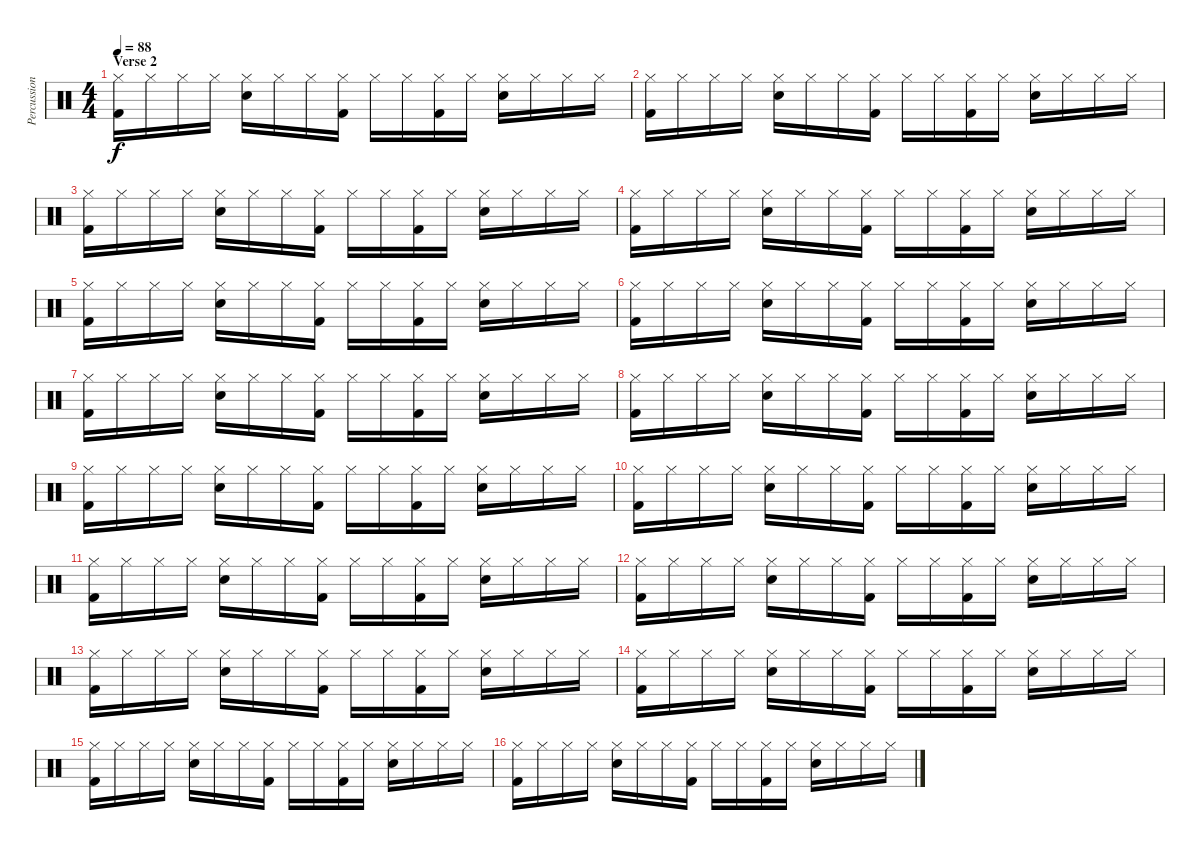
\track ("Percussion" "Percussion") {instrument percussion}
\staff {score}
\articulation defaults
\ts (4 4)
\section ("" "Verse 2")
\tempo 88
\clef neutral
\ks c
("Hi-Hat (closed)" "Kick (hit) 2").16{dy f} "Hi-Hat (closed)".16 "Hi-Hat (closed)".16 "Hi-Hat (closed)".16 ("Hi-Hat (closed)" "Electric Snare (hit)").16 "Hi-Hat (closed)".16 "Hi-Hat (closed)".16 ("Hi-Hat (closed)" "Kick (hit) 2").16 "Hi-Hat (closed)".16 "Hi-Hat (closed)".16 ("Hi-Hat (closed)" "Kick (hit) 2").16 "Hi-Hat (closed)".16 ("Hi-Hat (closed)" "Electric Snare (hit)").16 "Hi-Hat (closed)".16 "Hi-Hat (closed)".16 "Hi-Hat (closed)".16 |
("Hi-Hat (closed)" "Kick (hit) 2").16 "Hi-Hat (closed)".16 "Hi-Hat (closed)".16 "Hi-Hat (closed)".16 ("Hi-Hat (closed)" "Electric Snare (hit)").16 "Hi-Hat (closed)".16 "Hi-Hat (closed)".16 ("Hi-Hat (closed)" "Kick (hit) 2").16 "Hi-Hat (closed)".16 "Hi-Hat (closed)".16 ("Hi-Hat (closed)" "Kick (hit) 2").16 "Hi-Hat (closed)".16 ("Hi-Hat (closed)" "Electric Snare (hit)").16 "Hi-Hat (closed)".16 "Hi-Hat (closed)".16 "Hi-Hat (closed)".16 |
("Hi-Hat (closed)" "Kick (hit) 2").16 "Hi-Hat (closed)".16 "Hi-Hat (closed)".16 "Hi-Hat (closed)".16 ("Hi-Hat (closed)" "Electric Snare (hit)").16 "Hi-Hat (closed)".16 "Hi-Hat (closed)".16 ("Hi-Hat (closed)" "Kick (hit) 2").16 "Hi-Hat (closed)".16 "Hi-Hat (closed)".16 ("Hi-Hat (closed)" "Kick (hit) 2").16 "Hi-Hat (closed)".16 ("Hi-Hat (closed)" "Electric Snare (hit)").16 "Hi-Hat (closed)".16 "Hi-Hat (closed)".16 "Hi-Hat (closed)".16 |
("Hi-Hat (closed)" "Kick (hit) 2").16 "Hi-Hat (closed)".16 "Hi-Hat (closed)".16 "Hi-Hat (closed)".16 ("Hi-Hat (closed)" "Electric Snare (hit)").16 "Hi-Hat (closed)".16 "Hi-Hat (closed)".16 ("Hi-Hat (closed)" "Kick (hit) 2").16 "Hi-Hat (closed)".16 "Hi-Hat (closed)".16 ("Hi-Hat (closed)" "Kick (hit) 2").16 "Hi-Hat (closed)".16 ("Hi-Hat (closed)" "Electric Snare (hit)").16 "Hi-Hat (closed)".16 "Hi-Hat (closed)".16 "Hi-Hat (closed)".16 |
("Hi-Hat (closed)" "Kick (hit) 2").16 "Hi-Hat (closed)".16 "Hi-Hat (closed)".16 "Hi-Hat (closed)".16 ("Hi-Hat (closed)" "Electric Snare (hit)").16 "Hi-Hat (closed)".16 "Hi-Hat (closed)".16 ("Hi-Hat (closed)" "Kick (hit) 2").16 "Hi-Hat (closed)".16 "Hi-Hat (closed)".16 ("Hi-Hat (closed)" "Kick (hit) 2").16 "Hi-Hat (closed)".16 ("Hi-Hat (closed)" "Electric Snare (hit)").16 "Hi-Hat (closed)".16 "Hi-Hat (closed)".16 "Hi-Hat (closed)".16 |
("Hi-Hat (closed)" "Kick (hit) 2").16 "Hi-Hat (closed)".16 "Hi-Hat (closed)".16 "Hi-Hat (closed)".16 ("Hi-Hat (closed)" "Electric Snare (hit)").16 "Hi-Hat (closed)".16 "Hi-Hat (closed)".16 ("Hi-Hat (closed)" "Kick (hit) 2").16 "Hi-Hat (closed)".16 "Hi-Hat (closed)".16 ("Hi-Hat (closed)" "Kick (hit) 2").16 "Hi-Hat (closed)".16 ("Hi-Hat (closed)" "Electric Snare (hit)").16 "Hi-Hat (closed)".16 "Hi-Hat (closed)".16 "Hi-Hat (closed)".16 |
("Hi-Hat (closed)" "Kick (hit) 2").16 "Hi-Hat (closed)".16 "Hi-Hat (closed)".16 "Hi-Hat (closed)".16 ("Hi-Hat (closed)" "Electric Snare (hit)").16 "Hi-Hat (closed)".16 "Hi-Hat (closed)".16 ("Hi-Hat (closed)" "Kick (hit) 2").16 "Hi-Hat (closed)".16 "Hi-Hat (closed)".16 ("Hi-Hat (closed)" "Kick (hit) 2").16 "Hi-Hat (closed)".16 ("Hi-Hat (closed)" "Electric Snare (hit)").16 "Hi-Hat (closed)".16 "Hi-Hat (closed)".16 "Hi-Hat (closed)".16 |
("Hi-Hat (closed)" "Kick (hit) 2").16 "Hi-Hat (closed)".16 "Hi-Hat (closed)".16 "Hi-Hat (closed)".16 ("Hi-Hat (closed)" "Electric Snare (hit)").16 "Hi-Hat (closed)".16 "Hi-Hat (closed)".16 ("Hi-Hat (closed)" "Kick (hit) 2").16 "Hi-Hat (closed)".16 "Hi-Hat (closed)".16 ("Hi-Hat (closed)" "Kick (hit) 2").16 "Hi-Hat (closed)".16 ("Hi-Hat (closed)" "Electric Snare (hit)").16 "Hi-Hat (closed)".16 "Hi-Hat (closed)".16 "Hi-Hat (closed)".16 |
("Hi-Hat (closed)" "Kick (hit) 2").16 "Hi-Hat (closed)".16 "Hi-Hat (closed)".16 "Hi-Hat (closed)".16 ("Hi-Hat (closed)" "Electric Snare (hit)").16 "Hi-Hat (closed)".16 "Hi-Hat (closed)".16 ("Hi-Hat (closed)" "Kick (hit) 2").16 "Hi-Hat (closed)".16 "Hi-Hat (closed)".16 ("Hi-Hat (closed)" "Kick (hit) 2").16 "Hi-Hat (closed)".16 ("Hi-Hat (closed)" "Electric Snare (hit)").16 "Hi-Hat (closed)".16 "Hi-Hat (closed)".16 "Hi-Hat (closed)".16 |
("Hi-Hat (closed)" "Kick (hit) 2").16 "Hi-Hat (closed)".16 "Hi-Hat (closed)".16 "Hi-Hat (closed)".16 ("Hi-Hat (closed)" "Electric Snare (hit)").16 "Hi-Hat (closed)".16 "Hi-Hat (closed)".16 ("Hi-Hat (closed)" "Kick (hit) 2").16 "Hi-Hat (closed)".16 "Hi-Hat (closed)".16 ("Hi-Hat (closed)" "Kick (hit) 2").16 "Hi-Hat (closed)".16 ("Hi-Hat (closed)" "Electric Snare (hit)").16 "Hi-Hat (closed)".16 "Hi-Hat (closed)".16 "Hi-Hat (closed)".16 |
("Hi-Hat (closed)" "Kick (hit) 2").16 "Hi-Hat (closed)".16 "Hi-Hat (closed)".16 "Hi-Hat (closed)".16 ("Hi-Hat (closed)" "Electric Snare (hit)").16 "Hi-Hat (closed)".16 "Hi-Hat (closed)".16 ("Hi-Hat (closed)" "Kick (hit) 2").16 "Hi-Hat (closed)".16 "Hi-Hat (closed)".16 ("Hi-Hat (closed)" "Kick (hit) 2").16 "Hi-Hat (closed)".16 ("Hi-Hat (closed)" "Electric Snare (hit)").16 "Hi-Hat (closed)".16 "Hi-Hat (closed)".16 "Hi-Hat (closed)".16 |
("Hi-Hat (closed)" "Kick (hit) 2").16 "Hi-Hat (closed)".16 "Hi-Hat (closed)".16 "Hi-Hat (closed)".16 ("Hi-Hat (closed)" "Electric Snare (hit)").16 "Hi-Hat (closed)".16 "Hi-Hat (closed)".16 ("Hi-Hat (closed)" "Kick (hit) 2").16 "Hi-Hat (closed)".16 "Hi-Hat (closed)".16 ("Hi-Hat (closed)" "Kick (hit) 2").16 "Hi-Hat (closed)".16 ("Hi-Hat (closed)" "Electric Snare (hit)").16 "Hi-Hat (closed)".16 "Hi-Hat (closed)".16 "Hi-Hat (closed)".16 |
("Hi-Hat (closed)" "Kick (hit) 2").16 "Hi-Hat (closed)".16 "Hi-Hat (closed)".16 "Hi-Hat (closed)".16 ("Hi-Hat (closed)" "Electric Snare (hit)").16 "Hi-Hat (closed)".16 "Hi-Hat (closed)".16 ("Hi-Hat (closed)" "Kick (hit) 2").16 "Hi-Hat (closed)".16 "Hi-Hat (closed)".16 ("Hi-Hat (closed)" "Kick (hit) 2").16 "Hi-Hat (closed)".16 ("Hi-Hat (closed)" "Electric Snare (hit)").16 "Hi-Hat (closed)".16 "Hi-Hat (closed)".16 "Hi-Hat (closed)".16 |
("Hi-Hat (closed)" "Kick (hit) 2").16 "Hi-Hat (closed)".16 "Hi-Hat (closed)".16 "Hi-Hat (closed)".16 ("Hi-Hat (closed)" "Electric Snare (hit)").16 "Hi-Hat (closed)".16 "Hi-Hat (closed)".16 ("Hi-Hat (closed)" "Kick (hit) 2").16 "Hi-Hat (closed)".16 "Hi-Hat (closed)".16 ("Hi-Hat (closed)" "Kick (hit) 2").16 "Hi-Hat (closed)".16 ("Hi-Hat (closed)" "Electric Snare (hit)").16 "Hi-Hat (closed)".16 "Hi-Hat (closed)".16 "Hi-Hat (closed)".16 |
("Hi-Hat (closed)" "Kick (hit) 2").16 "Hi-Hat (closed)".16 "Hi-Hat (closed)".16 "Hi-Hat (closed)".16 ("Hi-Hat (closed)" "Electric Snare (hit)").16 "Hi-Hat (closed)".16 "Hi-Hat (closed)".16 ("Hi-Hat (closed)" "Kick (hit) 2").16 "Hi-Hat (closed)".16 "Hi-Hat (closed)".16 ("Hi-Hat (closed)" "Kick (hit) 2").16 "Hi-Hat (closed)".16 ("Hi-Hat (closed)" "Electric Snare (hit)").16 "Hi-Hat (closed)".16 "Hi-Hat (closed)".16 "Hi-Hat (closed)".16 |
("Hi-Hat (closed)" "Kick (hit) 2").16 "Hi-Hat (closed)".16 "Hi-Hat (closed)".16 "Hi-Hat (closed)".16 ("Hi-Hat (closed)" "Electric Snare (hit)").16 "Hi-Hat (closed)".16 "Hi-Hat (closed)".16 ("Hi-Hat (closed)" "Kick (hit) 2").16 "Hi-Hat (closed)".16 "Hi-Hat (closed)".16 ("Hi-Hat (closed)" "Kick (hit) 2").16 "Hi-Hat (closed)".16 ("Hi-Hat (closed)" "Electric Snare (hit)").16 "Hi-Hat (closed)".16 "Hi-Hat (closed)".16 "Hi-Hat (closed)".16
